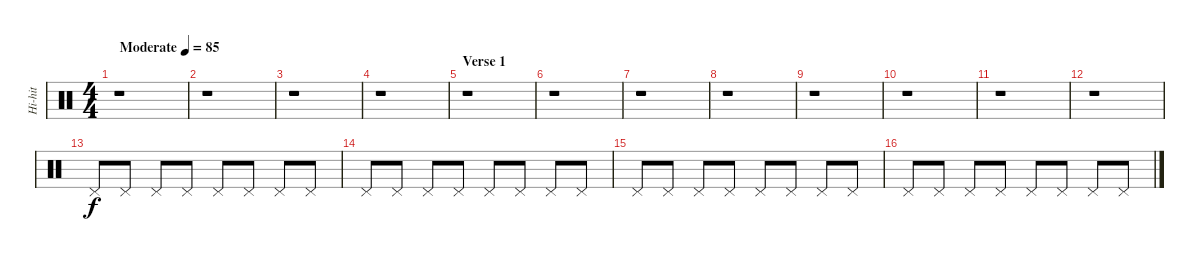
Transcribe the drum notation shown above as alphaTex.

\track ("Hi-hit" "Hi-hit") {instrument percussion}
\staff {score}
\articulation defaults
\ts (4 4)
\tempo (85 "Moderate")
\clef neutral
\ks c
r.1{dy f} |
r.1 |
r.1 |
r.1 |
\section ("" "Verse 1")
r.1 |
r.1 |
r.1 |
r.1 |
r.1 |
r.1 |
r.1 |
r.1 |
"Pedal Hi-Hat (hit)".8 "Pedal Hi-Hat (hit)".8 "Pedal Hi-Hat (hit)".8 "Pedal Hi-Hat (hit)".8 "Pedal Hi-Hat (hit)".8 "Pedal Hi-Hat (hit)".8 "Pedal Hi-Hat (hit)".8 "Pedal Hi-Hat (hit)".8 |
"Pedal Hi-Hat (hit)".8 "Pedal Hi-Hat (hit)".8 "Pedal Hi-Hat (hit)".8 "Pedal Hi-Hat (hit)".8 "Pedal Hi-Hat (hit)".8 "Pedal Hi-Hat (hit)".8 "Pedal Hi-Hat (hit)".8 "Pedal Hi-Hat (hit)".8 |
"Pedal Hi-Hat (hit)".8 "Pedal Hi-Hat (hit)".8 "Pedal Hi-Hat (hit)".8 "Pedal Hi-Hat (hit)".8 "Pedal Hi-Hat (hit)".8 "Pedal Hi-Hat (hit)".8 "Pedal Hi-Hat (hit)".8 "Pedal Hi-Hat (hit)".8 |
"Pedal Hi-Hat (hit)".8 "Pedal Hi-Hat (hit)".8 "Pedal Hi-Hat (hit)".8 "Pedal Hi-Hat (hit)".8 "Pedal Hi-Hat (hit)".8 "Pedal Hi-Hat (hit)".8 "Pedal Hi-Hat (hit)".8 "Pedal Hi-Hat (hit)".8
